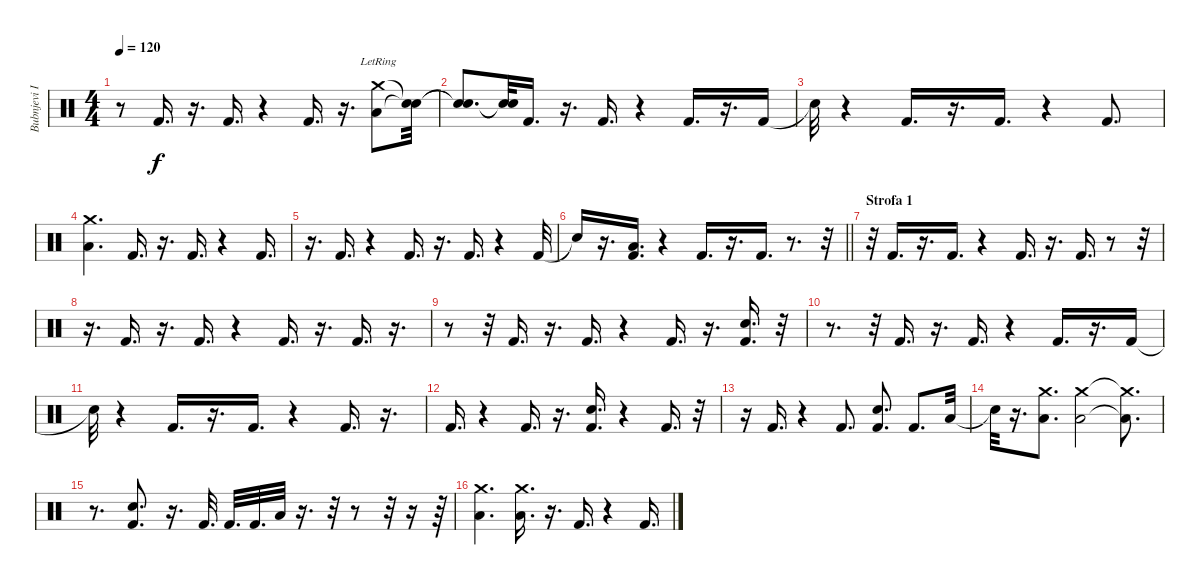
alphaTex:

\track ("Bubnjevi Ipe Ivandic" "Bubnjevi I") {instrument percussion}
\staff {score}
\articulation defaults
\ts (4 4)
\tempo 120
\clef neutral
\ks c
r.8{dy f} "Kick (hit) 2".16{d} r.16{d} "Kick (hit) 2".16{d} r.4 "Kick (hit) 2".16{d} r.16{d} ("Low Tom (hit)" "Crash medium (hit)"{lr}).8 ("Snare (hit)"{t} "Snare (hit)"{t}).32 |
("Snare (hit)"{t} "Snare (hit)"{t}).8{d} ("Snare (hit)"{t} "Snare (hit)"{t}).32 "Kick (hit) 2".16{d} r.16{d} "Kick (hit) 2".16{d} r.4 "Kick (hit) 2".16{d} r.16{d} "Kick (hit) 2".16 |
"Snare (hit)"{t}.32 r.4 "Kick (hit) 2".16{d} r.16{d} "Kick (hit) 2".16{d} r.4 "Kick (hit) 2".8{d} |
("Low Tom (hit)" "Crash medium (hit)").4{d} "Kick (hit) 2".16{d} r.16{d} "Kick (hit) 2".16{d} r.4 "Kick (hit) 2".16{d} |
r.16{d} "Kick (hit) 2".16{d} r.4 "Kick (hit) 2".16{d} r.16{d} "Kick (hit) 2".16{d} r.4 "Kick (hit) 2".32 |
\barLineRight lightlight "Snare (hit)"{t}.16
r.16{d} ("Kick (hit) 2" "Low Tom (hit)").16{d} r.4 "Kick (hit) 2".16{d} r.16{d} "Kick (hit) 2".16{d} r.8{d} r.32 |
\section ("" "Strofa 1")
r.32 "Kick (hit) 2".16{d} r.16{d} "Kick (hit) 2".16{d} r.4 "Kick (hit) 2".16{d} r.16{d} "Kick (hit) 2".16{d} r.8 r.32 |
r.16{d} "Kick (hit) 2".16{d} r.16{d} "Kick (hit) 2".16{d} r.4 "Kick (hit) 2".16{d} r.16{d} "Kick (hit) 2".16{d} r.16{d} |
r.8 r.32 "Kick (hit) 2".16{d} r.16{d} "Kick (hit) 2".16{d} r.4 "Kick (hit) 2".16{d} r.16{d} ("Kick (hit) 2" "Snare (hit) 2").16{d} r.32 |
r.8{d} r.32 "Kick (hit) 2".16{d} r.16{d} "Kick (hit) 2".16{d} r.4 "Kick (hit) 2".16{d} r.16{d} "Kick (hit) 2".16 |
"Snare (hit)"{t}.32 r.4 "Kick (hit) 2".16{d} r.16{d} "Kick (hit) 2".16{d} r.4 "Kick (hit) 2".16{d} r.16{d} |
"Kick (hit) 2".16{d} r.4 "Kick (hit) 2".16{d} r.16{d} ("Kick (hit) 2" "Snare (hit) 2").16{d} r.4 "Kick (hit) 2".16{d} r.32 |
r.16 "Kick (hit) 2".16{d} r.4 "Kick (hit) 2".8{d} ("Kick (hit) 2" "Snare (hit) 2").8{d} "Kick (hit) 2".8{d} "Low Tom (hit)".32 |
"Snare (hit)"{t}.32 r.16{d} ("Low Tom (hit)" "Crash medium (hit)").8{d} ("Low Tom (hit)" "Crash medium (hit)").2 ("Low Tom (hit)"{t} "Crash medium (hit)"{t}).8{d} |
r.8{d} ("Kick (hit) 2" "Snare (hit) 2").8{d} r.16{d} "Kick (hit) 2".32{d} "Kick (hit) 2".32{d} "Kick (hit) 2".32{d} "Low Tom (hit)".32 r.16{d} r.32 r.8 r.32 r.16 r.64 |
("Low Tom (hit)" "Crash medium (hit)").4{d} ("Low Tom (hit)" "Crash medium (hit)").16{d} r.16{d} "Kick (hit) 2".16{d} r.4 "Kick (hit) 2".16{d}
